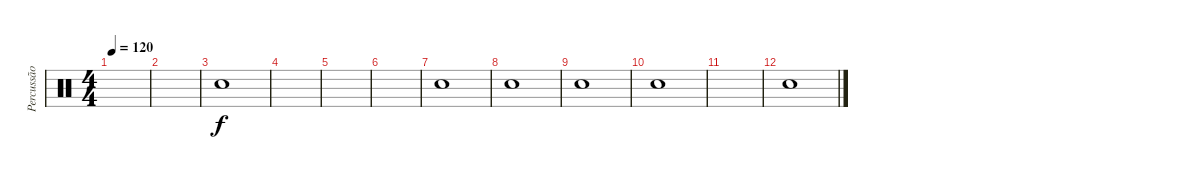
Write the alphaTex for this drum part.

\track ("Percussão" "Percussão") {instrument percussion}
\staff {score}
\articulation defaults
\ts (4 4)
\tempo 120
\clef neutral
\ks c
|
|
"Snare (hit)".1 |
|
|
|
"Snare (hit)".1 |
"Snare (hit)".1 |
"Snare (hit)".1 |
"Snare (hit)".1 |
|
"Snare (hit)".1
